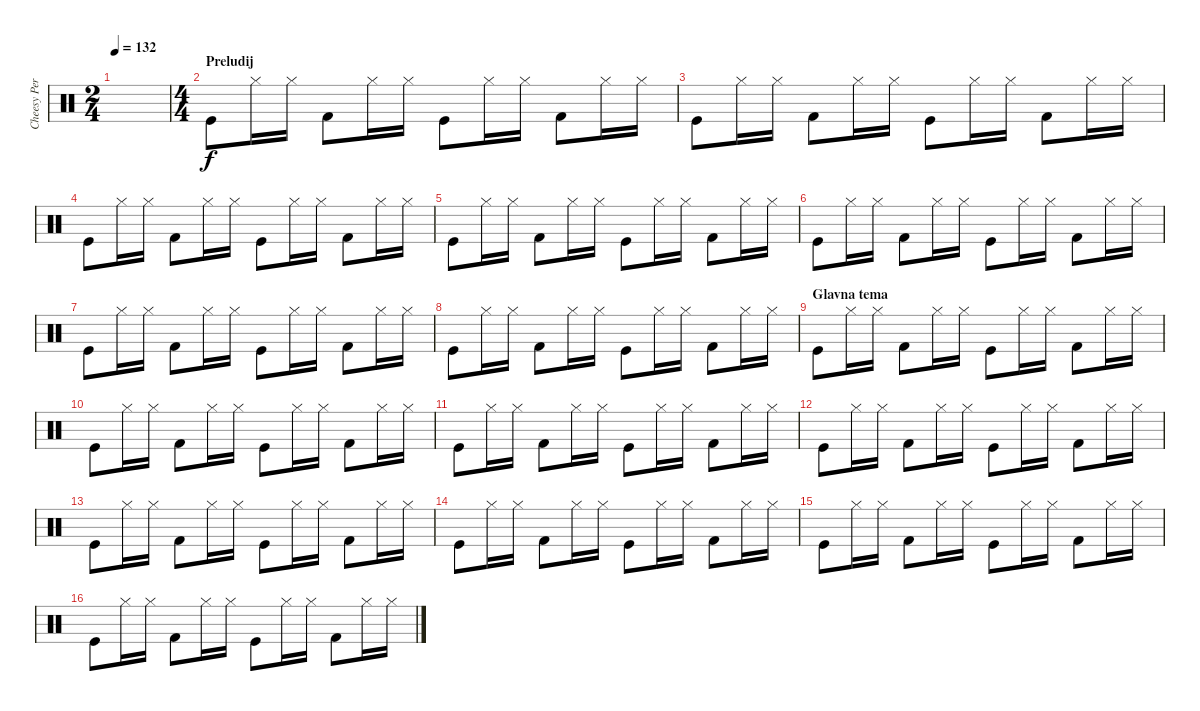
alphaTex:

\track ("Cheesy Percussion" "Cheesy Per") {instrument percussion}
\staff {score}
\articulation defaults
\ts (2 4)
\tempo 132
\clef neutral
\ks c
|
\ts (4 4)
\section ("" "Preludij")
"Kick (hit)".8 "Hi-Hat (closed)".16 "Hi-Hat (closed)".16 "Kick (hit) 2".8 "Hi-Hat (closed)".16 "Hi-Hat (closed)".16 "Kick (hit)".8 "Hi-Hat (closed)".16 "Hi-Hat (closed)".16 "Kick (hit) 2".8 "Hi-Hat (closed)".16 "Hi-Hat (closed)".16 |
"Kick (hit)".8 "Hi-Hat (closed)".16 "Hi-Hat (closed)".16 "Kick (hit) 2".8 "Hi-Hat (closed)".16 "Hi-Hat (closed)".16 "Kick (hit)".8 "Hi-Hat (closed)".16 "Hi-Hat (closed)".16 "Kick (hit) 2".8 "Hi-Hat (closed)".16 "Hi-Hat (closed)".16 |
"Kick (hit)".8 "Hi-Hat (closed)".16 "Hi-Hat (closed)".16 "Kick (hit) 2".8 "Hi-Hat (closed)".16 "Hi-Hat (closed)".16 "Kick (hit)".8 "Hi-Hat (closed)".16 "Hi-Hat (closed)".16 "Kick (hit) 2".8 "Hi-Hat (closed)".16 "Hi-Hat (closed)".16 |
"Kick (hit)".8 "Hi-Hat (closed)".16 "Hi-Hat (closed)".16 "Kick (hit) 2".8 "Hi-Hat (closed)".16 "Hi-Hat (closed)".16 "Kick (hit)".8 "Hi-Hat (closed)".16 "Hi-Hat (closed)".16 "Kick (hit) 2".8 "Hi-Hat (closed)".16 "Hi-Hat (closed)".16 |
"Kick (hit)".8 "Hi-Hat (closed)".16 "Hi-Hat (closed)".16 "Kick (hit) 2".8 "Hi-Hat (closed)".16 "Hi-Hat (closed)".16 "Kick (hit)".8 "Hi-Hat (closed)".16 "Hi-Hat (closed)".16 "Kick (hit) 2".8 "Hi-Hat (closed)".16 "Hi-Hat (closed)".16 |
"Kick (hit)".8 "Hi-Hat (closed)".16 "Hi-Hat (closed)".16 "Kick (hit) 2".8 "Hi-Hat (closed)".16 "Hi-Hat (closed)".16 "Kick (hit)".8 "Hi-Hat (closed)".16 "Hi-Hat (closed)".16 "Kick (hit) 2".8 "Hi-Hat (closed)".16 "Hi-Hat (closed)".16 |
"Kick (hit)".8 "Hi-Hat (closed)".16 "Hi-Hat (closed)".16 "Kick (hit) 2".8 "Hi-Hat (closed)".16 "Hi-Hat (closed)".16 "Kick (hit)".8 "Hi-Hat (closed)".16 "Hi-Hat (closed)".16 "Kick (hit) 2".8 "Hi-Hat (closed)".16 "Hi-Hat (closed)".16 |
\section ("" "Glavna tema")
"Kick (hit)".8 "Hi-Hat (closed)".16 "Hi-Hat (closed)".16 "Kick (hit) 2".8 "Hi-Hat (closed)".16 "Hi-Hat (closed)".16 "Kick (hit)".8 "Hi-Hat (closed)".16 "Hi-Hat (closed)".16 "Kick (hit) 2".8 "Hi-Hat (closed)".16 "Hi-Hat (closed)".16 |
"Kick (hit)".8 "Hi-Hat (closed)".16 "Hi-Hat (closed)".16 "Kick (hit) 2".8 "Hi-Hat (closed)".16 "Hi-Hat (closed)".16 "Kick (hit)".8 "Hi-Hat (closed)".16 "Hi-Hat (closed)".16 "Kick (hit) 2".8 "Hi-Hat (closed)".16 "Hi-Hat (closed)".16 |
"Kick (hit)".8 "Hi-Hat (closed)".16 "Hi-Hat (closed)".16 "Kick (hit) 2".8 "Hi-Hat (closed)".16 "Hi-Hat (closed)".16 "Kick (hit)".8 "Hi-Hat (closed)".16 "Hi-Hat (closed)".16 "Kick (hit) 2".8 "Hi-Hat (closed)".16 "Hi-Hat (closed)".16 |
"Kick (hit)".8 "Hi-Hat (closed)".16 "Hi-Hat (closed)".16 "Kick (hit) 2".8 "Hi-Hat (closed)".16 "Hi-Hat (closed)".16 "Kick (hit)".8 "Hi-Hat (closed)".16 "Hi-Hat (closed)".16 "Kick (hit) 2".8 "Hi-Hat (closed)".16 "Hi-Hat (closed)".16 |
"Kick (hit)".8 "Hi-Hat (closed)".16 "Hi-Hat (closed)".16 "Kick (hit) 2".8 "Hi-Hat (closed)".16 "Hi-Hat (closed)".16 "Kick (hit)".8 "Hi-Hat (closed)".16 "Hi-Hat (closed)".16 "Kick (hit) 2".8 "Hi-Hat (closed)".16 "Hi-Hat (closed)".16 |
"Kick (hit)".8 "Hi-Hat (closed)".16 "Hi-Hat (closed)".16 "Kick (hit) 2".8 "Hi-Hat (closed)".16 "Hi-Hat (closed)".16 "Kick (hit)".8 "Hi-Hat (closed)".16 "Hi-Hat (closed)".16 "Kick (hit) 2".8 "Hi-Hat (closed)".16 "Hi-Hat (closed)".16 |
"Kick (hit)".8 "Hi-Hat (closed)".16 "Hi-Hat (closed)".16 "Kick (hit) 2".8 "Hi-Hat (closed)".16 "Hi-Hat (closed)".16 "Kick (hit)".8 "Hi-Hat (closed)".16 "Hi-Hat (closed)".16 "Kick (hit) 2".8 "Hi-Hat (closed)".16 "Hi-Hat (closed)".16 |
"Kick (hit)".8 "Hi-Hat (closed)".16 "Hi-Hat (closed)".16 "Kick (hit) 2".8 "Hi-Hat (closed)".16 "Hi-Hat (closed)".16 "Kick (hit)".8 "Hi-Hat (closed)".16 "Hi-Hat (closed)".16 "Kick (hit) 2".8 "Hi-Hat (closed)".16 "Hi-Hat (closed)".16
